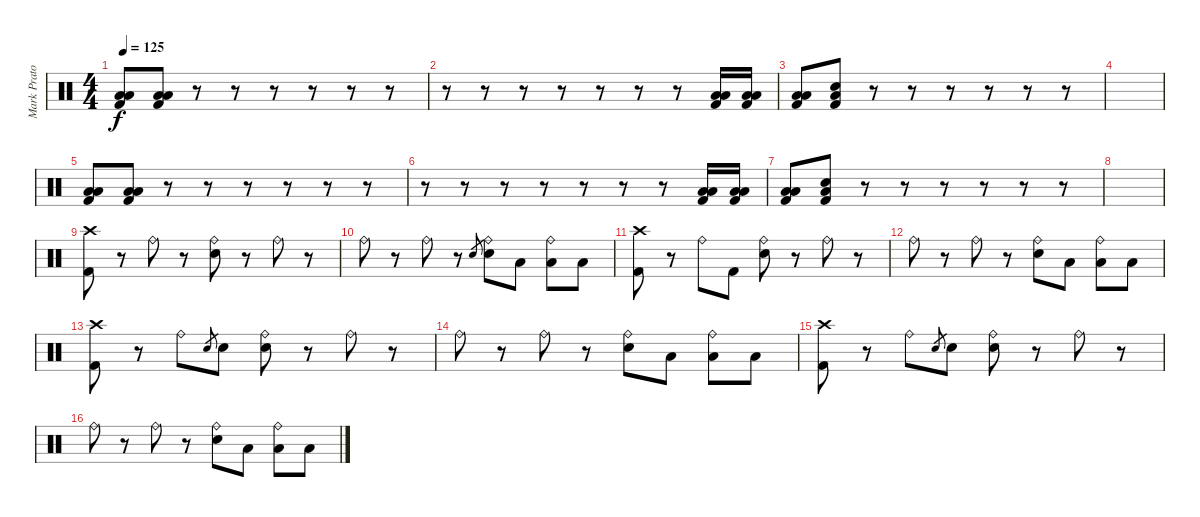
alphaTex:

\track ("Mark Prator" "Mark Prato") {instrument percussion}
\staff {score}
\articulation defaults
\ts (4 4)
\tempo 125
\clef neutral
\ks c
("Low Floor Tom (hit)" "Low Floor Tom (hit)" "Kick (hit) 2").8{dy f} ("Low Floor Tom (hit)" "Low Floor Tom (hit)" "Kick (hit) 2").8 r.8 r.8 r.8 r.8 r.8 r.8 |
r.8 r.8 r.8 r.8 r.8 r.8 r.8 ("Low Floor Tom (hit)" "Low Floor Tom (hit)" "Kick (hit) 2").16 ("Low Floor Tom (hit)" "Low Floor Tom (hit)" "Kick (hit) 2").16 |
("Low Floor Tom (hit)" "Low Floor Tom (hit)" "Kick (hit) 2").8 ("Low Floor Tom (hit)" "Snare (hit)" "Kick (hit) 2").8 r.8 r.8 r.8 r.8 r.8 r.8 |
|
("Low Floor Tom (hit)" "Low Floor Tom (hit)" "Kick (hit) 2").8 ("Low Floor Tom (hit)" "Low Floor Tom (hit)" "Kick (hit) 2").8 r.8 r.8 r.8 r.8 r.8 r.8 |
r.8 r.8 r.8 r.8 r.8 r.8 r.8 ("Low Floor Tom (hit)" "Low Floor Tom (hit)" "Kick (hit) 2").16 ("Low Floor Tom (hit)" "Low Floor Tom (hit)" "Kick (hit) 2").16 |
("Low Floor Tom (hit)" "Low Floor Tom (hit)" "Kick (hit) 2").8 ("Low Floor Tom (hit)" "Snare (hit)" "Kick (hit) 2").8 r.8 r.8 r.8 r.8 r.8 r.8 |
|
("Crash high (hit)" "Kick (hit) 2").8 r.8 "Ride (bell)".8 r.8 ("Ride (bell)" "Electric Snare (hit)").8 r.8 "Ride (bell)".8 r.8 |
"Ride (bell)".8 r.8 "Ride (bell)".8 r.8 "Electric Snare (hit)".8{gr} ("Ride (bell)" "Electric Snare (hit)").8 "Low Tom (hit)".8 ("Ride (bell)" "Low Floor Tom (hit)").8 "Low Floor Tom (hit)".8 |
("Crash high (hit)" "Kick (hit) 2").8 r.8 "Ride (bell)".8 "Kick (hit) 2".8 ("Ride (bell)" "Electric Snare (hit)").8 r.8 "Ride (bell)".8 r.8 |
"Ride (bell)".8 r.8 "Ride (bell)".8 r.8 ("Ride (bell)" "Electric Snare (hit)").8 "Low Tom (hit)".8 ("Ride (bell)" "Low Floor Tom (hit)").8 "Low Floor Tom (hit)".8 |
("Crash high (hit)" "Kick (hit) 2").8 r.8 "Ride (bell)".8 "Electric Snare (hit)".8{gr} "Electric Snare (hit)".8 ("Ride (bell)" "Electric Snare (hit)").8 r.8 "Ride (bell)".8 r.8 |
"Ride (bell)".8 r.8 "Ride (bell)".8 r.8 ("Ride (bell)" "Electric Snare (hit)").8 "Low Tom (hit)".8 ("Ride (bell)" "Low Floor Tom (hit)").8 "Low Floor Tom (hit)".8 |
("Crash high (hit)" "Kick (hit) 2").8 r.8 "Ride (bell)".8 "Electric Snare (hit)".8{gr} "Electric Snare (hit)".8 ("Ride (bell)" "Electric Snare (hit)").8 r.8 "Ride (bell)".8 r.8 |
"Ride (bell)".8 r.8 "Ride (bell)".8 r.8 ("Ride (bell)" "Electric Snare (hit)").8 "Low Tom (hit)".8 ("Ride (bell)" "Low Floor Tom (hit)").8 "Low Floor Tom (hit)".8
